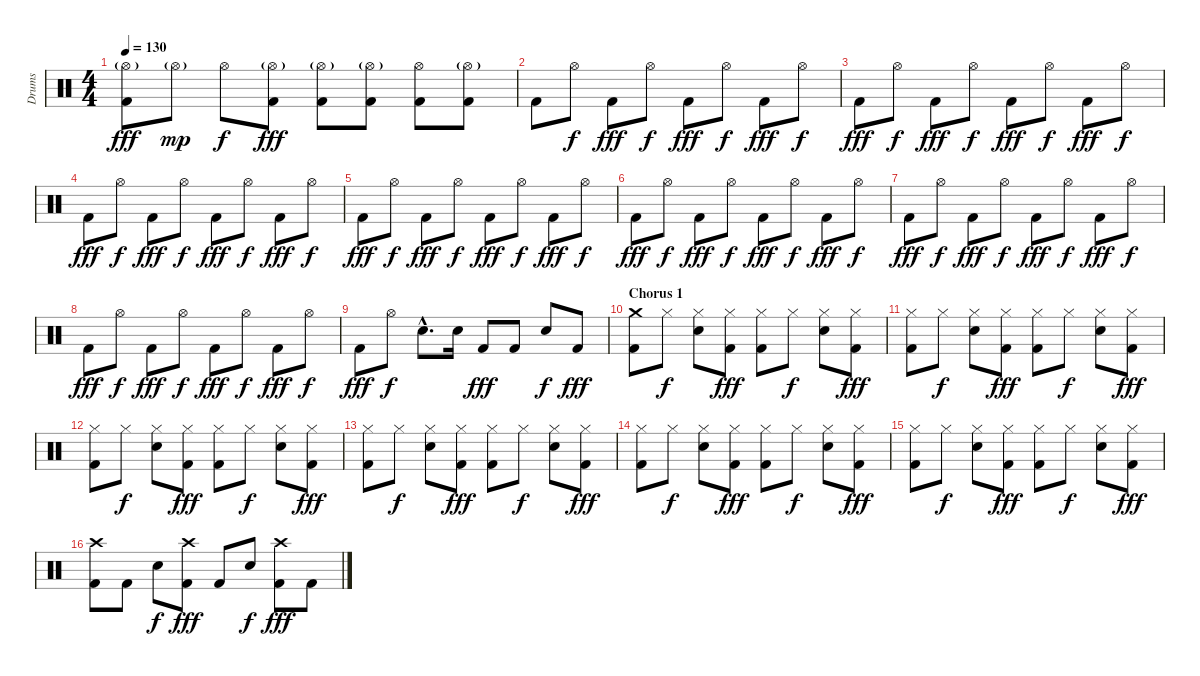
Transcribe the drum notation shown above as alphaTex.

\track ("Drums" "Drums") {instrument percussion}
\staff {score}
\articulation defaults
\ts (4 4)
\tempo 130
\clef neutral
\ks c
("Hi-Hat (open)"{g} "Kick (hit) 2").8{dy fff} "Hi-Hat (open)"{g}.8{dy mp} "Hi-Hat (open)".8{dy f} ("Hi-Hat (open)"{g} "Kick (hit) 2").8{dy fff} ("Hi-Hat (open)"{g} "Kick (hit) 2").8 ("Hi-Hat (open)"{g} "Kick (hit) 2").8 ("Hi-Hat (open)" "Kick (hit) 2").8 ("Hi-Hat (open)"{g} "Kick (hit) 2").8 |
"Kick (hit) 2".8 "Hi-Hat (open)".8{dy f} "Kick (hit) 2".8{dy fff} "Hi-Hat (open)".8{dy f} "Kick (hit) 2".8{dy fff} "Hi-Hat (open)".8{dy f} "Kick (hit) 2".8{dy fff} "Hi-Hat (open)".8{dy f} |
"Kick (hit) 2".8{dy fff} "Hi-Hat (open)".8{dy f} "Kick (hit) 2".8{dy fff} "Hi-Hat (open)".8{dy f} "Kick (hit) 2".8{dy fff} "Hi-Hat (open)".8{dy f} "Kick (hit) 2".8{dy fff} "Hi-Hat (open)".8{dy f} |
"Kick (hit) 2".8{dy fff} "Hi-Hat (open)".8{dy f} "Kick (hit) 2".8{dy fff} "Hi-Hat (open)".8{dy f} "Kick (hit) 2".8{dy fff} "Hi-Hat (open)".8{dy f} "Kick (hit) 2".8{dy fff} "Hi-Hat (open)".8{dy f} |
"Kick (hit) 2".8{dy fff} "Hi-Hat (open)".8{dy f} "Kick (hit) 2".8{dy fff} "Hi-Hat (open)".8{dy f} "Kick (hit) 2".8{dy fff} "Hi-Hat (open)".8{dy f} "Kick (hit) 2".8{dy fff} "Hi-Hat (open)".8{dy f} |
"Kick (hit) 2".8{dy fff} "Hi-Hat (open)".8{dy f} "Kick (hit) 2".8{dy fff} "Hi-Hat (open)".8{dy f} "Kick (hit) 2".8{dy fff} "Hi-Hat (open)".8{dy f} "Kick (hit) 2".8{dy fff} "Hi-Hat (open)".8{dy f} |
"Kick (hit) 2".8{dy fff} "Hi-Hat (open)".8{dy f} "Kick (hit) 2".8{dy fff} "Hi-Hat (open)".8{dy f} "Kick (hit) 2".8{dy fff} "Hi-Hat (open)".8{dy f} "Kick (hit) 2".8{dy fff} "Hi-Hat (open)".8{dy f} |
"Kick (hit) 2".8{dy fff} "Hi-Hat (open)".8{dy f} "Kick (hit) 2".8{dy fff} "Hi-Hat (open)".8{dy f} "Kick (hit) 2".8{dy fff} "Hi-Hat (open)".8{dy f} "Kick (hit) 2".8{dy fff} "Hi-Hat (open)".8{dy f} |
"Kick (hit) 2".8{dy fff} "Hi-Hat (open)".8{dy f} "Snare (hit) 2"{hac}.8{d} "Snare (hit) 2".16 "Kick (hit) 2".8{dy fff} "Kick (hit) 2".8 "Snare (hit) 2".8{dy f} "Kick (hit) 2".8{dy fff} |
\section ("" "Chorus 1")
("Crash medium (hit)" "Kick (hit) 2").8 "Hi-Hat (closed)".8{dy f} ("Hi-Hat (closed)" "Snare (hit) 2").8 ("Hi-Hat (closed)" "Kick (hit) 2").8{dy fff} ("Hi-Hat (closed)" "Kick (hit) 2").8 "Hi-Hat (closed)".8{dy f} ("Hi-Hat (closed)" "Snare (hit) 2").8 ("Hi-Hat (closed)" "Kick (hit) 2").8{dy fff} |
("Hi-Hat (closed)" "Kick (hit) 2").8 "Hi-Hat (closed)".8{dy f} ("Hi-Hat (closed)" "Snare (hit) 2").8 ("Hi-Hat (closed)" "Kick (hit) 2").8{dy fff} ("Hi-Hat (closed)" "Kick (hit) 2").8 "Hi-Hat (closed)".8{dy f} ("Hi-Hat (closed)" "Snare (hit) 2").8 ("Hi-Hat (closed)" "Kick (hit) 2").8{dy fff} |
("Hi-Hat (closed)" "Kick (hit) 2").8 "Hi-Hat (closed)".8{dy f} ("Hi-Hat (closed)" "Snare (hit) 2").8 ("Hi-Hat (closed)" "Kick (hit) 2").8{dy fff} ("Hi-Hat (closed)" "Kick (hit) 2").8 "Hi-Hat (closed)".8{dy f} ("Hi-Hat (closed)" "Snare (hit) 2").8 ("Hi-Hat (closed)" "Kick (hit) 2").8{dy fff} |
("Hi-Hat (closed)" "Kick (hit) 2").8 "Hi-Hat (closed)".8{dy f} ("Hi-Hat (closed)" "Snare (hit) 2").8 ("Hi-Hat (closed)" "Kick (hit) 2").8{dy fff} ("Hi-Hat (closed)" "Kick (hit) 2").8 "Hi-Hat (closed)".8{dy f} ("Hi-Hat (closed)" "Snare (hit) 2").8 ("Hi-Hat (closed)" "Kick (hit) 2").8{dy fff} |
("Hi-Hat (closed)" "Kick (hit) 2").8 "Hi-Hat (closed)".8{dy f} ("Hi-Hat (closed)" "Snare (hit) 2").8 ("Hi-Hat (closed)" "Kick (hit) 2").8{dy fff} ("Hi-Hat (closed)" "Kick (hit) 2").8 "Hi-Hat (closed)".8{dy f} ("Hi-Hat (closed)" "Snare (hit) 2").8 ("Hi-Hat (closed)" "Kick (hit) 2").8{dy fff} |
("Hi-Hat (closed)" "Kick (hit) 2").8 "Hi-Hat (closed)".8{dy f} ("Hi-Hat (closed)" "Snare (hit) 2").8 ("Hi-Hat (closed)" "Kick (hit) 2").8{dy fff} ("Hi-Hat (closed)" "Kick (hit) 2").8 "Hi-Hat (closed)".8{dy f} ("Hi-Hat (closed)" "Snare (hit) 2").8 ("Hi-Hat (closed)" "Kick (hit) 2").8{dy fff} |
("Crash high (hit)" "Kick (hit) 2").8 "Kick (hit) 2".8 "Snare (hit) 2".8{dy f} ("Crash high (hit)" "Kick (hit) 2").8{dy fff} "Kick (hit) 2".8 "Snare (hit) 2".8{dy f} ("Crash high (hit)" "Kick (hit) 2").8{dy fff} "Kick (hit) 2".8
